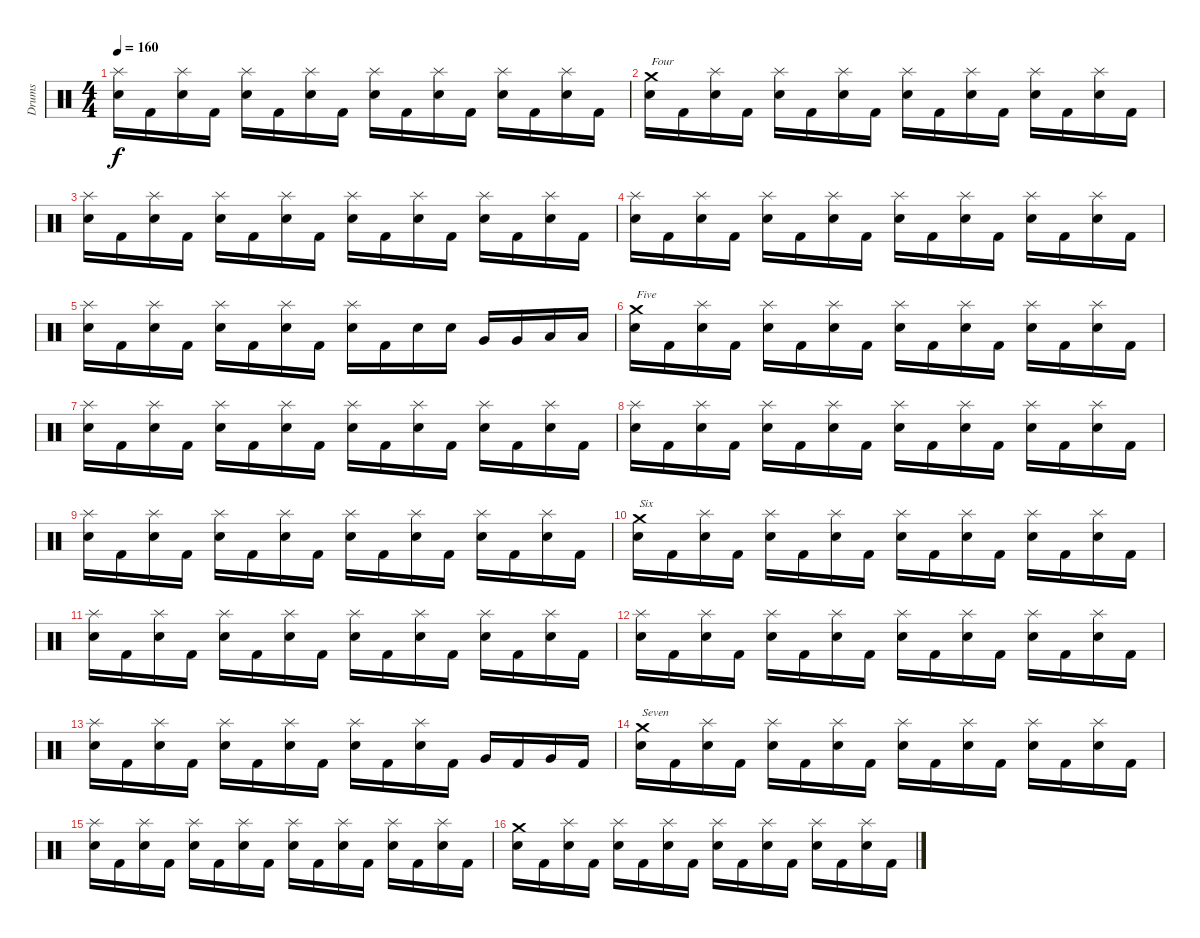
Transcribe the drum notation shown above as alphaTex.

\track ("Drums" "Drums") {instrument percussion}
\staff {score}
\articulation defaults
\ts (4 4)
\tempo 160
\clef neutral
\ks c
("Splash (hit)" "Snare (hit) 2").16{dy f} "Kick (hit) 2".16 ("Splash (hit)" "Snare (hit) 2").16 "Kick (hit) 2".16 ("Splash (hit)" "Snare (hit) 2").16 "Kick (hit) 2".16 ("Splash (hit)" "Snare (hit) 2").16 "Kick (hit) 2".16 ("Splash (hit)" "Snare (hit) 2").16 "Kick (hit) 2".16 ("Splash (hit)" "Snare (hit) 2").16 "Kick (hit) 2".16 ("Splash (hit)" "Snare (hit) 2").16 "Kick (hit) 2".16 ("Splash (hit)" "Snare (hit) 2").16 "Kick (hit) 2".16 |
("Crash medium (hit)" "Snare (hit) 2").16{txt "Four"} "Kick (hit) 2".16 ("Splash (hit)" "Snare (hit) 2").16 "Kick (hit) 2".16 ("Splash (hit)" "Snare (hit) 2").16 "Kick (hit) 2".16 ("Splash (hit)" "Snare (hit) 2").16 "Kick (hit) 2".16 ("Splash (hit)" "Snare (hit) 2").16 "Kick (hit) 2".16 ("Splash (hit)" "Snare (hit) 2").16 "Kick (hit) 2".16 ("Splash (hit)" "Snare (hit) 2").16 "Kick (hit) 2".16 ("Splash (hit)" "Snare (hit) 2").16 "Kick (hit) 2".16 |
("Splash (hit)" "Snare (hit) 2").16 "Kick (hit) 2".16 ("Splash (hit)" "Snare (hit) 2").16 "Kick (hit) 2".16 ("Splash (hit)" "Snare (hit) 2").16 "Kick (hit) 2".16 ("Splash (hit)" "Snare (hit) 2").16 "Kick (hit) 2".16 ("Splash (hit)" "Snare (hit) 2").16 "Kick (hit) 2".16 ("Splash (hit)" "Snare (hit) 2").16 "Kick (hit) 2".16 ("Splash (hit)" "Snare (hit) 2").16 "Kick (hit) 2".16 ("Splash (hit)" "Snare (hit) 2").16 "Kick (hit) 2".16 |
("Splash (hit)" "Snare (hit) 2").16 "Kick (hit) 2".16 ("Splash (hit)" "Snare (hit) 2").16 "Kick (hit) 2".16 ("Splash (hit)" "Snare (hit) 2").16 "Kick (hit) 2".16 ("Splash (hit)" "Snare (hit) 2").16 "Kick (hit) 2".16 ("Splash (hit)" "Snare (hit) 2").16 "Kick (hit) 2".16 ("Splash (hit)" "Snare (hit) 2").16 "Kick (hit) 2".16 ("Splash (hit)" "Snare (hit) 2").16 "Kick (hit) 2".16 ("Splash (hit)" "Snare (hit) 2").16 "Kick (hit) 2".16 |
("Splash (hit)" "Snare (hit) 2").16 "Kick (hit) 2".16 ("Splash (hit)" "Snare (hit) 2").16 "Kick (hit) 2".16 ("Splash (hit)" "Snare (hit) 2").16 "Kick (hit) 2".16 ("Splash (hit)" "Snare (hit) 2").16 "Kick (hit) 2".16 ("Splash (hit)" "Snare (hit) 2").16 "Kick (hit) 2".16 "Snare (hit) 2".16 "Snare (hit) 2".16 "Very Low Tom (hit)".16 "Very Low Tom (hit)".16 "Low Floor Tom (hit)".16 "Low Floor Tom (hit)".16 |
("Crash medium (hit)" "Snare (hit) 2").16{txt "Five"} "Kick (hit) 2".16 ("Splash (hit)" "Snare (hit) 2").16 "Kick (hit) 2".16 ("Splash (hit)" "Snare (hit) 2").16 "Kick (hit) 2".16 ("Splash (hit)" "Snare (hit) 2").16 "Kick (hit) 2".16 ("Splash (hit)" "Snare (hit) 2").16 "Kick (hit) 2".16 ("Splash (hit)" "Snare (hit) 2").16 "Kick (hit) 2".16 ("Splash (hit)" "Snare (hit) 2").16 "Kick (hit) 2".16 ("Splash (hit)" "Snare (hit) 2").16 "Kick (hit) 2".16 |
("Splash (hit)" "Snare (hit) 2").16 "Kick (hit) 2".16 ("Splash (hit)" "Snare (hit) 2").16 "Kick (hit) 2".16 ("Splash (hit)" "Snare (hit) 2").16 "Kick (hit) 2".16 ("Splash (hit)" "Snare (hit) 2").16 "Kick (hit) 2".16 ("Splash (hit)" "Snare (hit) 2").16 "Kick (hit) 2".16 ("Splash (hit)" "Snare (hit) 2").16 "Kick (hit) 2".16 ("Splash (hit)" "Snare (hit) 2").16 "Kick (hit) 2".16 ("Splash (hit)" "Snare (hit) 2").16 "Kick (hit) 2".16 |
("Splash (hit)" "Snare (hit) 2").16 "Kick (hit) 2".16 ("Splash (hit)" "Snare (hit) 2").16 "Kick (hit) 2".16 ("Splash (hit)" "Snare (hit) 2").16 "Kick (hit) 2".16 ("Splash (hit)" "Snare (hit) 2").16 "Kick (hit) 2".16 ("Splash (hit)" "Snare (hit) 2").16 "Kick (hit) 2".16 ("Splash (hit)" "Snare (hit) 2").16 "Kick (hit) 2".16 ("Splash (hit)" "Snare (hit) 2").16 "Kick (hit) 2".16 ("Splash (hit)" "Snare (hit) 2").16 "Kick (hit) 2".16 |
("Splash (hit)" "Snare (hit) 2").16 "Kick (hit) 2".16 ("Splash (hit)" "Snare (hit) 2").16 "Kick (hit) 2".16 ("Splash (hit)" "Snare (hit) 2").16 "Kick (hit) 2".16 ("Splash (hit)" "Snare (hit) 2").16 "Kick (hit) 2".16 ("Splash (hit)" "Snare (hit) 2").16 "Kick (hit) 2".16 ("Splash (hit)" "Snare (hit) 2").16 "Kick (hit) 2".16 ("Splash (hit)" "Snare (hit) 2").16 "Kick (hit) 2".16 ("Splash (hit)" "Snare (hit) 2").16 "Kick (hit) 2".16 |
("Crash medium (hit)" "Snare (hit) 2").16{txt "Six"} "Kick (hit) 2".16 ("Splash (hit)" "Snare (hit) 2").16 "Kick (hit) 2".16 ("Splash (hit)" "Snare (hit) 2").16 "Kick (hit) 2".16 ("Splash (hit)" "Snare (hit) 2").16 "Kick (hit) 2".16 ("Splash (hit)" "Snare (hit) 2").16 "Kick (hit) 2".16 ("Splash (hit)" "Snare (hit) 2").16 "Kick (hit) 2".16 ("Splash (hit)" "Snare (hit) 2").16 "Kick (hit) 2".16 ("Splash (hit)" "Snare (hit) 2").16 "Kick (hit) 2".16 |
("Splash (hit)" "Snare (hit) 2").16 "Kick (hit) 2".16 ("Splash (hit)" "Snare (hit) 2").16 "Kick (hit) 2".16 ("Splash (hit)" "Snare (hit) 2").16 "Kick (hit) 2".16 ("Splash (hit)" "Snare (hit) 2").16 "Kick (hit) 2".16 ("Splash (hit)" "Snare (hit) 2").16 "Kick (hit) 2".16 ("Splash (hit)" "Snare (hit) 2").16 "Kick (hit) 2".16 ("Splash (hit)" "Snare (hit) 2").16 "Kick (hit) 2".16 ("Splash (hit)" "Snare (hit) 2").16 "Kick (hit) 2".16 |
("Splash (hit)" "Snare (hit) 2").16 "Kick (hit) 2".16 ("Splash (hit)" "Snare (hit) 2").16 "Kick (hit) 2".16 ("Splash (hit)" "Snare (hit) 2").16 "Kick (hit) 2".16 ("Splash (hit)" "Snare (hit) 2").16 "Kick (hit) 2".16 ("Splash (hit)" "Snare (hit) 2").16 "Kick (hit) 2".16 ("Splash (hit)" "Snare (hit) 2").16 "Kick (hit) 2".16 ("Splash (hit)" "Snare (hit) 2").16 "Kick (hit) 2".16 ("Splash (hit)" "Snare (hit) 2").16 "Kick (hit) 2".16 |
("Splash (hit)" "Snare (hit) 2").16 "Kick (hit) 2".16 ("Splash (hit)" "Snare (hit) 2").16 "Kick (hit) 2".16 ("Splash (hit)" "Snare (hit) 2").16 "Kick (hit) 2".16 ("Splash (hit)" "Snare (hit) 2").16 "Kick (hit) 2".16 ("Splash (hit)" "Snare (hit) 2").16 "Kick (hit) 2".16 ("Splash (hit)" "Snare (hit) 2").16 "Kick (hit) 2".16 "Very Low Tom (hit)".16 "Kick (hit) 2".16 "Very Low Tom (hit)".16 "Kick (hit) 2".16 |
("Crash medium (hit)" "Snare (hit) 2").16{txt "Seven"} "Kick (hit) 2".16 ("Splash (hit)" "Snare (hit) 2").16 "Kick (hit) 2".16 ("Splash (hit)" "Snare (hit) 2").16 "Kick (hit) 2".16 ("Splash (hit)" "Snare (hit) 2").16 "Kick (hit) 2".16 ("Splash (hit)" "Snare (hit) 2").16 "Kick (hit) 2".16 ("Splash (hit)" "Snare (hit) 2").16 "Kick (hit) 2".16 ("Splash (hit)" "Snare (hit) 2").16 "Kick (hit) 2".16 ("Splash (hit)" "Snare (hit) 2").16 "Kick (hit) 2".16 |
("Splash (hit)" "Snare (hit) 2").16 "Kick (hit) 2".16 ("Splash (hit)" "Snare (hit) 2").16 "Kick (hit) 2".16 ("Splash (hit)" "Snare (hit) 2").16 "Kick (hit) 2".16 ("Splash (hit)" "Snare (hit) 2").16 "Kick (hit) 2".16 ("Splash (hit)" "Snare (hit) 2").16 "Kick (hit) 2".16 ("Splash (hit)" "Snare (hit) 2").16 "Kick (hit) 2".16 ("Splash (hit)" "Snare (hit) 2").16 "Kick (hit) 2".16 ("Splash (hit)" "Snare (hit) 2").16 "Kick (hit) 2".16 |
("Crash medium (hit)" "Snare (hit) 2").16 "Kick (hit) 2".16 ("Splash (hit)" "Snare (hit) 2").16 "Kick (hit) 2".16 ("Splash (hit)" "Snare (hit) 2").16 "Kick (hit) 2".16 ("Splash (hit)" "Snare (hit) 2").16 "Kick (hit) 2".16 ("Splash (hit)" "Snare (hit) 2").16 "Kick (hit) 2".16 ("Splash (hit)" "Snare (hit) 2").16 "Kick (hit) 2".16 ("Splash (hit)" "Snare (hit) 2").16 "Kick (hit) 2".16 ("Splash (hit)" "Snare (hit) 2").16 "Kick (hit) 2".16
